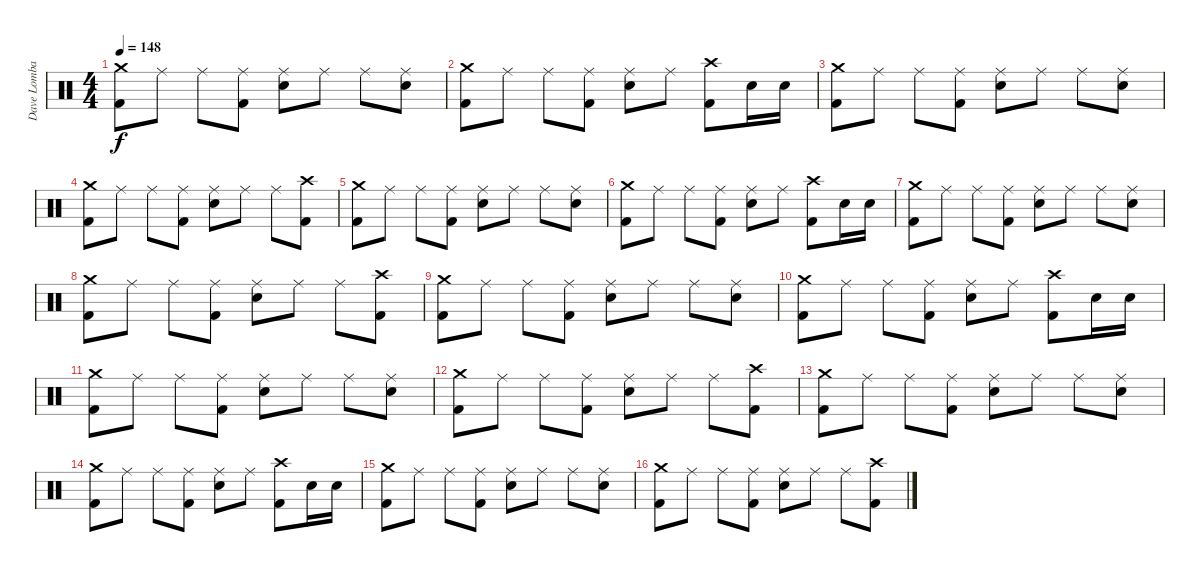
\track ("Dave Lombardo" "Dave Lomba") {instrument percussion}
\staff {score}
\articulation defaults
\ts (4 4)
\tempo 148
\clef neutral
\ks c
("Crash medium (hit)" "Kick (hit) 2").8{dy f} "Ride (middle)".8 "Ride (middle)".8 ("Kick (hit) 2" "Ride (middle)").8 ("Electric Snare (hit)" "Ride (middle)").8 "Ride (middle)".8 "Ride (middle)".8 ("Electric Snare (hit)" "Ride (middle)").8 |
("Crash medium (hit)" "Kick (hit) 2").8 "Ride (middle)".8 "Ride (middle)".8 ("Kick (hit) 2" "Ride (middle)").8 ("Electric Snare (hit)" "Ride (middle)").8 "Ride (middle)".8 ("Crash high (hit)" "Kick (hit) 2").8 "Electric Snare (hit)".16 "Electric Snare (hit)".16 |
("Crash medium (hit)" "Kick (hit) 2").8 "Ride (middle)".8 "Ride (middle)".8 ("Kick (hit) 2" "Ride (middle)").8 ("Electric Snare (hit)" "Ride (middle)").8 "Ride (middle)".8 "Ride (middle)".8 ("Electric Snare (hit)" "Ride (middle)").8 |
("Crash medium (hit)" "Kick (hit) 2").8 "Ride (middle)".8 "Ride (middle)".8 ("Kick (hit) 2" "Ride (middle)").8 ("Electric Snare (hit)" "Ride (middle)").8 "Ride (middle)".8 "Ride (middle)".8 ("Kick (hit) 2" "Crash high (hit)").8 |
("Crash medium (hit)" "Kick (hit) 2").8 "Ride (middle)".8 "Ride (middle)".8 ("Kick (hit) 2" "Ride (middle)").8 ("Electric Snare (hit)" "Ride (middle)").8 "Ride (middle)".8 "Ride (middle)".8 ("Electric Snare (hit)" "Ride (middle)").8 |
("Crash medium (hit)" "Kick (hit) 2").8 "Ride (middle)".8 "Ride (middle)".8 ("Kick (hit) 2" "Ride (middle)").8 ("Electric Snare (hit)" "Ride (middle)").8 "Ride (middle)".8 ("Crash high (hit)" "Kick (hit) 2").8 "Electric Snare (hit)".16 "Electric Snare (hit)".16 |
("Crash medium (hit)" "Kick (hit) 2").8 "Ride (middle)".8 "Ride (middle)".8 ("Kick (hit) 2" "Ride (middle)").8 ("Electric Snare (hit)" "Ride (middle)").8 "Ride (middle)".8 "Ride (middle)".8 ("Electric Snare (hit)" "Ride (middle)").8 |
("Crash medium (hit)" "Kick (hit) 2").8 "Ride (middle)".8 "Ride (middle)".8 ("Kick (hit) 2" "Ride (middle)").8 ("Electric Snare (hit)" "Ride (middle)").8 "Ride (middle)".8 "Ride (middle)".8 ("Kick (hit) 2" "Crash high (hit)").8 |
("Crash medium (hit)" "Kick (hit) 2").8 "Ride (middle)".8 "Ride (middle)".8 ("Kick (hit) 2" "Ride (middle)").8 ("Electric Snare (hit)" "Ride (middle)").8 "Ride (middle)".8 "Ride (middle)".8 ("Electric Snare (hit)" "Ride (middle)").8 |
("Crash medium (hit)" "Kick (hit) 2").8 "Ride (middle)".8 "Ride (middle)".8 ("Kick (hit) 2" "Ride (middle)").8 ("Electric Snare (hit)" "Ride (middle)").8 "Ride (middle)".8 ("Crash high (hit)" "Kick (hit) 2").8 "Electric Snare (hit)".16 "Electric Snare (hit)".16 |
("Crash medium (hit)" "Kick (hit) 2").8 "Ride (middle)".8 "Ride (middle)".8 ("Kick (hit) 2" "Ride (middle)").8 ("Electric Snare (hit)" "Ride (middle)").8 "Ride (middle)".8 "Ride (middle)".8 ("Electric Snare (hit)" "Ride (middle)").8 |
("Crash medium (hit)" "Kick (hit) 2").8 "Ride (middle)".8 "Ride (middle)".8 ("Kick (hit) 2" "Ride (middle)").8 ("Electric Snare (hit)" "Ride (middle)").8 "Ride (middle)".8 "Ride (middle)".8 ("Kick (hit) 2" "Crash high (hit)").8 |
("Crash medium (hit)" "Kick (hit) 2").8 "Ride (middle)".8 "Ride (middle)".8 ("Kick (hit) 2" "Ride (middle)").8 ("Electric Snare (hit)" "Ride (middle)").8 "Ride (middle)".8 "Ride (middle)".8 ("Electric Snare (hit)" "Ride (middle)").8 |
("Crash medium (hit)" "Kick (hit) 2").8 "Ride (middle)".8 "Ride (middle)".8 ("Kick (hit) 2" "Ride (middle)").8 ("Electric Snare (hit)" "Ride (middle)").8 "Ride (middle)".8 ("Crash high (hit)" "Kick (hit) 2").8 "Electric Snare (hit)".16 "Electric Snare (hit)".16 |
("Crash medium (hit)" "Kick (hit) 2").8 "Ride (middle)".8 "Ride (middle)".8 ("Kick (hit) 2" "Ride (middle)").8 ("Electric Snare (hit)" "Ride (middle)").8 "Ride (middle)".8 "Ride (middle)".8 ("Electric Snare (hit)" "Ride (middle)").8 |
("Crash medium (hit)" "Kick (hit) 2").8 "Ride (middle)".8 "Ride (middle)".8 ("Kick (hit) 2" "Ride (middle)").8 ("Electric Snare (hit)" "Ride (middle)").8 "Ride (middle)".8 "Ride (middle)".8 ("Kick (hit) 2" "Crash high (hit)").8
